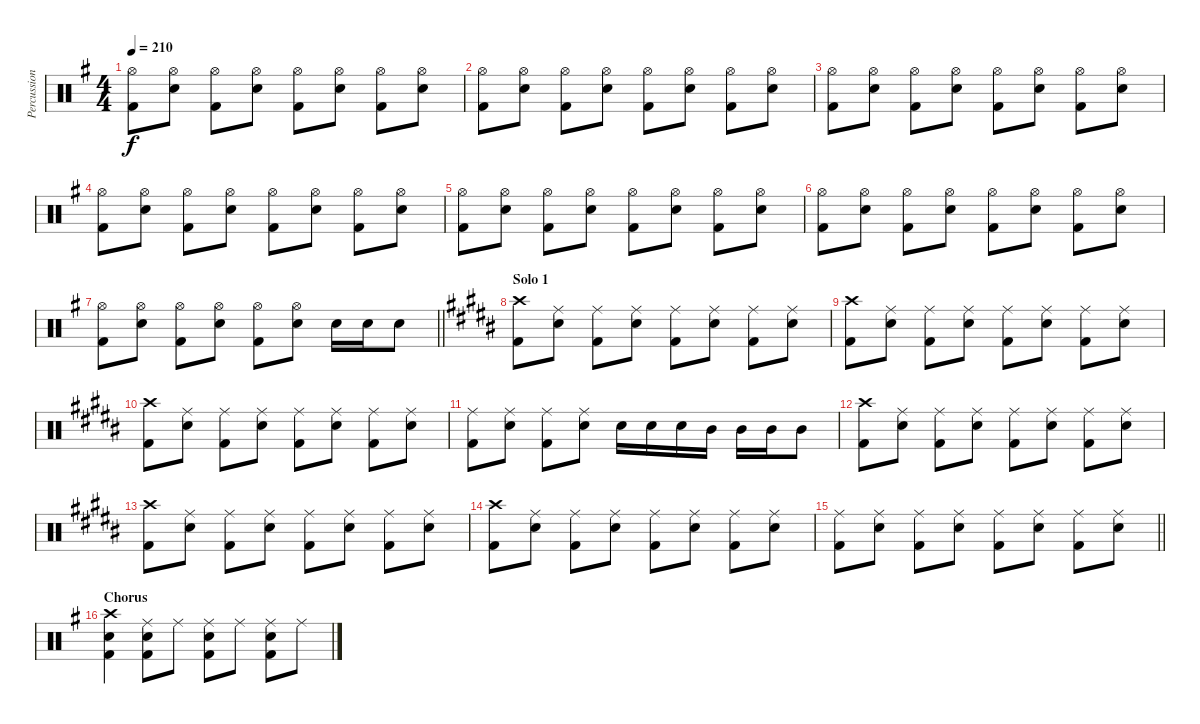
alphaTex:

\track ("Percussion" "Percussion") {instrument percussion}
\staff {score}
\articulation defaults
\ts (4 4)
\tempo 210
\clef neutral
\ks eminor
("Hi-Hat (open)" "Kick (hit) 2").8{dy f} ("Hi-Hat (open)" "Snare (hit) 2").8 ("Hi-Hat (open)" "Kick (hit) 2").8 ("Hi-Hat (open)" "Snare (hit) 2").8 ("Hi-Hat (open)" "Kick (hit) 2").8 ("Hi-Hat (open)" "Snare (hit) 2").8 ("Hi-Hat (open)" "Kick (hit) 2").8 ("Hi-Hat (open)" "Snare (hit) 2").8 |
("Hi-Hat (open)" "Kick (hit) 2").8 ("Hi-Hat (open)" "Snare (hit) 2").8 ("Hi-Hat (open)" "Kick (hit) 2").8 ("Hi-Hat (open)" "Snare (hit) 2").8 ("Hi-Hat (open)" "Kick (hit) 2").8 ("Hi-Hat (open)" "Snare (hit) 2").8 ("Hi-Hat (open)" "Kick (hit) 2").8 ("Hi-Hat (open)" "Snare (hit) 2").8 |
("Hi-Hat (open)" "Kick (hit) 2").8 ("Hi-Hat (open)" "Snare (hit) 2").8 ("Hi-Hat (open)" "Kick (hit) 2").8 ("Hi-Hat (open)" "Snare (hit) 2").8 ("Hi-Hat (open)" "Kick (hit) 2").8 ("Hi-Hat (open)" "Snare (hit) 2").8 ("Hi-Hat (open)" "Kick (hit) 2").8 ("Hi-Hat (open)" "Snare (hit) 2").8 |
("Hi-Hat (open)" "Kick (hit) 2").8 ("Hi-Hat (open)" "Snare (hit) 2").8 ("Hi-Hat (open)" "Kick (hit) 2").8 ("Hi-Hat (open)" "Snare (hit) 2").8 ("Hi-Hat (open)" "Kick (hit) 2").8 ("Hi-Hat (open)" "Snare (hit) 2").8 ("Hi-Hat (open)" "Kick (hit) 2").8 ("Hi-Hat (open)" "Snare (hit) 2").8 |
("Hi-Hat (open)" "Kick (hit) 2").8 ("Hi-Hat (open)" "Snare (hit) 2").8 ("Hi-Hat (open)" "Kick (hit) 2").8 ("Hi-Hat (open)" "Snare (hit) 2").8 ("Hi-Hat (open)" "Kick (hit) 2").8 ("Hi-Hat (open)" "Snare (hit) 2").8 ("Hi-Hat (open)" "Kick (hit) 2").8 ("Hi-Hat (open)" "Snare (hit) 2").8 |
("Hi-Hat (open)" "Kick (hit) 2").8 ("Hi-Hat (open)" "Snare (hit) 2").8 ("Hi-Hat (open)" "Kick (hit) 2").8 ("Hi-Hat (open)" "Snare (hit) 2").8 ("Hi-Hat (open)" "Kick (hit) 2").8 ("Hi-Hat (open)" "Snare (hit) 2").8 ("Hi-Hat (open)" "Kick (hit) 2").8 ("Hi-Hat (open)" "Snare (hit) 2").8 |
\barLineRight lightlight
("Hi-Hat (open)" "Kick (hit) 2").8 ("Hi-Hat (open)" "Snare (hit) 2").8 ("Hi-Hat (open)" "Kick (hit) 2").8 ("Hi-Hat (open)" "Snare (hit) 2").8 ("Hi-Hat (open)" "Kick (hit) 2").8 ("Hi-Hat (open)" "Snare (hit) 2").8 "Snare (hit) 2".16 "Snare (hit) 2".16 "Snare (hit) 2".8 |
\section ("" "Solo 1")
\ks g#minor
("Crash high (hit)" "Kick (hit) 2").8 ("Ride (middle)" "Snare (hit) 2").8 ("Ride (middle)" "Kick (hit) 2").8 ("Ride (middle)" "Snare (hit) 2").8 ("Ride (middle)" "Kick (hit) 2").8 ("Ride (middle)" "Snare (hit) 2").8 ("Ride (middle)" "Kick (hit) 2").8 ("Ride (middle)" "Snare (hit) 2").8 |
("Crash high (hit)" "Kick (hit) 2").8 ("Ride (middle)" "Snare (hit) 2").8 ("Ride (middle)" "Kick (hit) 2").8 ("Ride (middle)" "Snare (hit) 2").8 ("Ride (middle)" "Kick (hit) 2").8 ("Ride (middle)" "Snare (hit) 2").8 ("Ride (middle)" "Kick (hit) 2").8 ("Ride (middle)" "Snare (hit) 2").8 |
("Crash high (hit)" "Kick (hit) 2").8 ("Ride (middle)" "Snare (hit) 2").8 ("Ride (middle)" "Kick (hit) 2").8 ("Ride (middle)" "Snare (hit) 2").8 ("Ride (middle)" "Kick (hit) 2").8 ("Ride (middle)" "Snare (hit) 2").8 ("Ride (middle)" "Kick (hit) 2").8 ("Ride (middle)" "Snare (hit) 2").8 |
("Ride (middle)" "Kick (hit) 2").8 ("Ride (middle)" "Snare (hit) 2").8 ("Ride (middle)" "Kick (hit) 2").8 ("Ride (middle)" "Snare (hit) 2").8 "Snare (hit) 2".16 "Snare (hit) 2".16 "Snare (hit) 2".16 "Mid Tom (hit)".16 "Mid Tom (hit)".16 "Mid Tom (hit)".16 "Mid Tom (hit)".8 |
("Crash high (hit)" "Kick (hit) 2").8 ("Ride (middle)" "Snare (hit) 2").8 ("Ride (middle)" "Kick (hit) 2").8 ("Ride (middle)" "Snare (hit) 2").8 ("Ride (middle)" "Kick (hit) 2").8 ("Ride (middle)" "Snare (hit) 2").8 ("Ride (middle)" "Kick (hit) 2").8 ("Ride (middle)" "Snare (hit) 2").8 |
("Crash high (hit)" "Kick (hit) 2").8 ("Ride (middle)" "Snare (hit) 2").8 ("Ride (middle)" "Kick (hit) 2").8 ("Ride (middle)" "Snare (hit) 2").8 ("Ride (middle)" "Kick (hit) 2").8 ("Ride (middle)" "Snare (hit) 2").8 ("Ride (middle)" "Kick (hit) 2").8 ("Ride (middle)" "Snare (hit) 2").8 |
("Crash high (hit)" "Kick (hit) 2").8 ("Ride (middle)" "Snare (hit) 2").8 ("Ride (middle)" "Kick (hit) 2").8 ("Ride (middle)" "Snare (hit) 2").8 ("Ride (middle)" "Kick (hit) 2").8 ("Ride (middle)" "Snare (hit) 2").8 ("Ride (middle)" "Kick (hit) 2").8 ("Ride (middle)" "Snare (hit) 2").8 |
\barLineRight lightlight
("Ride (middle)" "Kick (hit) 2").8 ("Ride (middle)" "Snare (hit) 2").8 ("Ride (middle)" "Kick (hit) 2").8 ("Ride (middle)" "Snare (hit) 2").8 ("Ride (middle)" "Kick (hit) 2").8 ("Ride (middle)" "Snare (hit) 2").8 ("Ride (middle)" "Kick (hit) 2").8 ("Ride (middle)" "Snare (hit) 2").8 |
\section ("" "Chorus")
\ks eminor
("Crash high (hit)" "Snare (hit) 2" "Kick (hit) 2").4 ("Ride (middle)" "Snare (hit) 2" "Kick (hit) 2").8 "Ride (middle)".8 ("Ride (middle)" "Snare (hit) 2" "Kick (hit) 2").8 "Ride (middle)".8 ("Ride (middle)" "Snare (hit) 2" "Kick (hit) 2").8 "Ride (middle)".8
